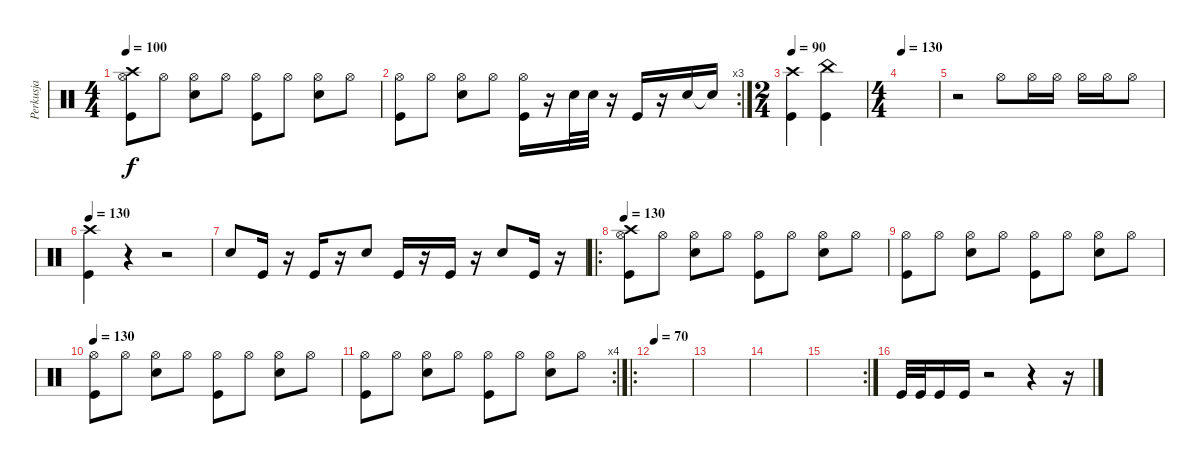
\track ("Perkusja" "Perkusja") {instrument percussion}
\staff {score}
\articulation defaults
\ts (4 4)
\tempo 100
\clef neutral
\ks c
("Crash high (hit)" "Hi-Hat (open)" "Kick (hit)").8{dy f} "Hi-Hat (open)".8 ("Snare (hit) 2" "Hi-Hat (open)").8 "Hi-Hat (open)".8 ("Kick (hit)" "Hi-Hat (open)").8 "Hi-Hat (open)".8 ("Snare (hit) 2" "Hi-Hat (open)").8 "Hi-Hat (open)".8 |
\rc 3
("Kick (hit)" "Hi-Hat (open)").8 "Hi-Hat (open)".8 ("Snare (hit) 2" "Hi-Hat (open)").8 "Hi-Hat (open)".8 ("Kick (hit)" "Hi-Hat (open)").16 r.16 "Snare (hit) 2".32 "Snare (hit) 2".32 r.16 "Kick (hit)".16 r.16 "Snare (hit) 2".16 "Snare (hit)"{t}.16 |
\ts (2 4)
\tempo 90
("Crash high (hit)" "Kick (hit)").4 ("China (hit)" "Kick (hit)").4 |
\ts (4 4)
\tempo 130
|
r.2 "Hi-Hat (open)".8 "Hi-Hat (open)".16 "Hi-Hat (open)".16 "Hi-Hat (open)".16 "Hi-Hat (open)".16 "Hi-Hat (open)".8 |
\tempo 130
("Crash high (hit)" "Kick (hit)").4 r.4 r.2 |
"Snare (hit) 2".8 "Kick (hit)".16 r.16 "Kick (hit)".16 r.16 "Snare (hit) 2".8 "Kick (hit)".16 r.16 "Kick (hit)".16 r.16 "Snare (hit) 2".8 "Kick (hit)".16 r.16 |
\ro
\tempo 130
("Crash high (hit)" "Hi-Hat (open)" "Kick (hit)").8 "Hi-Hat (open)".8 ("Snare (hit) 2" "Hi-Hat (open)").8 "Hi-Hat (open)".8 ("Kick (hit)" "Hi-Hat (open)").8 "Hi-Hat (open)".8 ("Snare (hit) 2" "Hi-Hat (open)").8 "Hi-Hat (open)".8 |
("Hi-Hat (open)" "Kick (hit)").8 "Hi-Hat (open)".8 ("Snare (hit) 2" "Hi-Hat (open)").8 "Hi-Hat (open)".8 ("Kick (hit)" "Hi-Hat (open)").8 "Hi-Hat (open)".8 ("Snare (hit) 2" "Hi-Hat (open)").8 "Hi-Hat (open)".8 |
\tempo 130
("Hi-Hat (open)" "Kick (hit)").8 "Hi-Hat (open)".8 ("Snare (hit) 2" "Hi-Hat (open)").8 "Hi-Hat (open)".8 ("Kick (hit)" "Hi-Hat (open)").8 "Hi-Hat (open)".8 ("Snare (hit) 2" "Hi-Hat (open)").8 "Hi-Hat (open)".8 |
\rc 4
("Hi-Hat (open)" "Kick (hit)").8 "Hi-Hat (open)".8 ("Snare (hit) 2" "Hi-Hat (open)").8 "Hi-Hat (open)".8 ("Kick (hit)" "Hi-Hat (open)").8 "Hi-Hat (open)".8 ("Snare (hit) 2" "Hi-Hat (open)").8 "Hi-Hat (open)".8 |
\ro
\tempo 70
|
|
|
\rc 2
|
"Kick (hit)".32 "Kick (hit)".32 "Kick (hit)".16 "Kick (hit)".16 r.2 r.4 r.16
